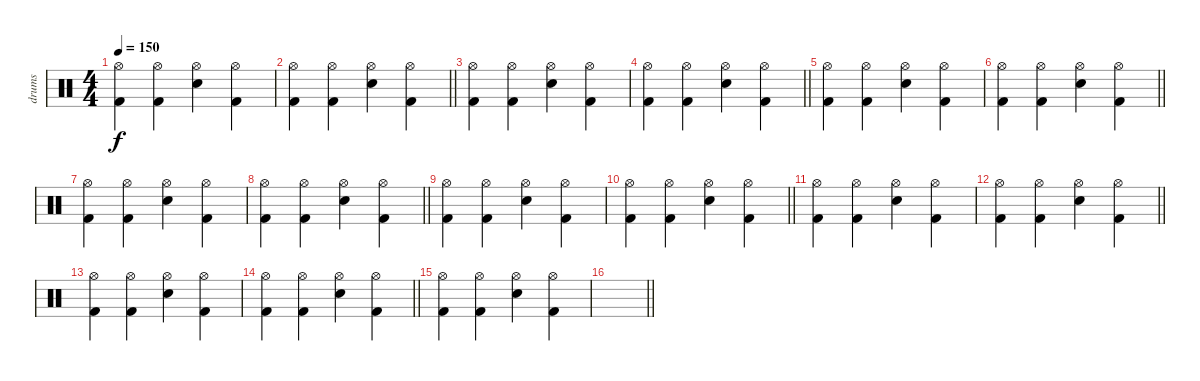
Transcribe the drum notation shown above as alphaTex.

\track ("drums" "drums") {instrument percussion}
\staff {score}
\articulation defaults
\ts (4 4)
\tempo 150
\clef neutral
\ks c
("Hi-Hat (open)" "Kick (hit) 2").4{dy f} ("Hi-Hat (open)" "Kick (hit) 2").4 ("Hi-Hat (open)" "Electric Snare (hit)").4 ("Hi-Hat (open)" "Kick (hit) 2").4 |
\barLineRight lightlight
("Hi-Hat (open)" "Kick (hit) 2").4 ("Hi-Hat (open)" "Kick (hit) 2").4 ("Hi-Hat (open)" "Electric Snare (hit)").4 ("Hi-Hat (open)" "Kick (hit) 2").4 |
("Hi-Hat (open)" "Kick (hit) 2").4 ("Hi-Hat (open)" "Kick (hit) 2").4 ("Hi-Hat (open)" "Electric Snare (hit)").4 ("Hi-Hat (open)" "Kick (hit) 2").4 |
\barLineRight lightlight
("Hi-Hat (open)" "Kick (hit) 2").4 ("Hi-Hat (open)" "Kick (hit) 2").4 ("Hi-Hat (open)" "Electric Snare (hit)").4 ("Hi-Hat (open)" "Kick (hit) 2").4 |
("Hi-Hat (open)" "Kick (hit) 2").4 ("Hi-Hat (open)" "Kick (hit) 2").4 ("Hi-Hat (open)" "Electric Snare (hit)").4 ("Hi-Hat (open)" "Kick (hit) 2").4 |
\barLineRight lightlight
("Hi-Hat (open)" "Kick (hit) 2").4 ("Hi-Hat (open)" "Kick (hit) 2").4 ("Hi-Hat (open)" "Electric Snare (hit)").4 ("Hi-Hat (open)" "Kick (hit) 2").4 |
("Hi-Hat (open)" "Kick (hit) 2").4 ("Hi-Hat (open)" "Kick (hit) 2").4 ("Hi-Hat (open)" "Electric Snare (hit)").4 ("Hi-Hat (open)" "Kick (hit) 2").4 |
\barLineRight lightlight
("Hi-Hat (open)" "Kick (hit) 2").4 ("Hi-Hat (open)" "Kick (hit) 2").4 ("Hi-Hat (open)" "Electric Snare (hit)").4 ("Hi-Hat (open)" "Kick (hit) 2").4 |
("Hi-Hat (open)" "Kick (hit) 2").4 ("Hi-Hat (open)" "Kick (hit) 2").4 ("Hi-Hat (open)" "Electric Snare (hit)").4 ("Hi-Hat (open)" "Kick (hit) 2").4 |
\barLineRight lightlight
("Hi-Hat (open)" "Kick (hit) 2").4 ("Hi-Hat (open)" "Kick (hit) 2").4 ("Hi-Hat (open)" "Electric Snare (hit)").4 ("Hi-Hat (open)" "Kick (hit) 2").4 |
("Hi-Hat (open)" "Kick (hit) 2").4 ("Hi-Hat (open)" "Kick (hit) 2").4 ("Hi-Hat (open)" "Electric Snare (hit)").4 ("Hi-Hat (open)" "Kick (hit) 2").4 |
\barLineRight lightlight
("Hi-Hat (open)" "Kick (hit) 2").4 ("Hi-Hat (open)" "Kick (hit) 2").4 ("Hi-Hat (open)" "Electric Snare (hit)").4 ("Hi-Hat (open)" "Kick (hit) 2").4 |
("Hi-Hat (open)" "Kick (hit) 2").4 ("Hi-Hat (open)" "Kick (hit) 2").4 ("Hi-Hat (open)" "Electric Snare (hit)").4 ("Hi-Hat (open)" "Kick (hit) 2").4 |
\barLineRight lightlight
("Hi-Hat (open)" "Kick (hit) 2").4 ("Hi-Hat (open)" "Kick (hit) 2").4 ("Hi-Hat (open)" "Electric Snare (hit)").4 ("Hi-Hat (open)" "Kick (hit) 2").4 |
("Hi-Hat (open)" "Kick (hit) 2").4 ("Hi-Hat (open)" "Kick (hit) 2").4 ("Hi-Hat (open)" "Electric Snare (hit)").4 ("Hi-Hat (open)" "Kick (hit) 2").4 |
\barLineRight lightlight
